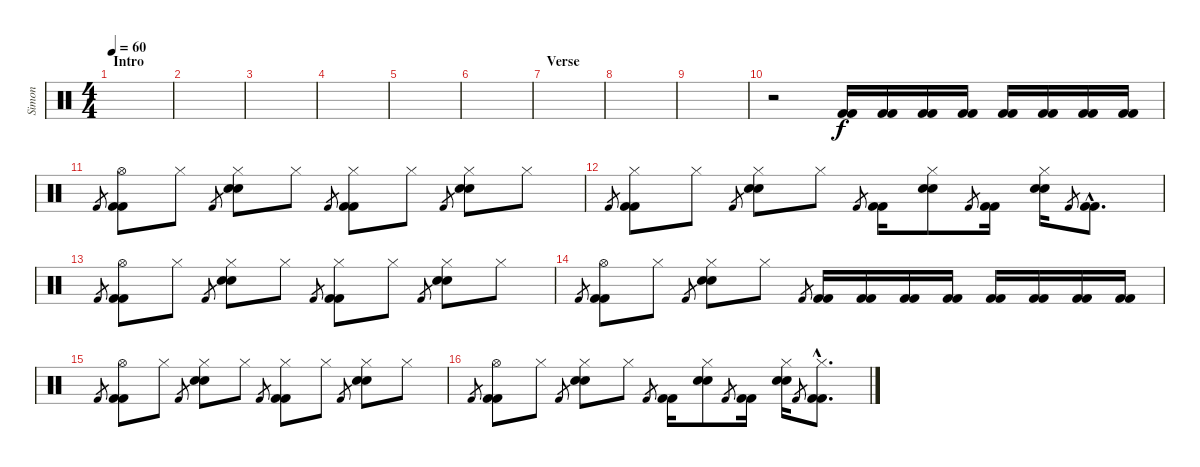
\track ("Simon" "Simon") {instrument percussion}
\staff {score}
\articulation defaults
\ts (4 4)
\section ("" "Intro")
\tempo 60
\clef neutral
\ks c
|
|
|
|
|
|
\section ("" "Verse")
|
|
|
r.2 ("Kick (hit) 2" "Kick (hit) 2").16 ("Kick (hit) 2" "Kick (hit) 2").16 ("Kick (hit) 2" "Kick (hit) 2").16 ("Kick (hit) 2" "Kick (hit) 2").16 ("Kick (hit) 2" "Kick (hit) 2").16 ("Kick (hit) 2" "Kick (hit) 2").16 ("Kick (hit) 2" "Kick (hit) 2").16 ("Kick (hit) 2" "Kick (hit) 2").16 |
"Kick (hit) 2".8{gr} ("Hi-Hat (open)" "Kick (hit) 2" "Kick (hit) 2").8 "Hi-Hat (closed)".8 "Kick (hit) 2".8{gr} ("Hi-Hat (closed)" "Electric Snare (hit)" "Electric Snare (hit)").8 "Hi-Hat (closed)".8 "Kick (hit) 2".8{gr} ("Hi-Hat (closed)" "Kick (hit) 2" "Kick (hit) 2").8 "Hi-Hat (closed)".8 "Kick (hit) 2".8{gr} ("Hi-Hat (closed)" "Electric Snare (hit)" "Electric Snare (hit)").8 "Hi-Hat (closed)".8 |
"Kick (hit) 2".8{gr} ("Hi-Hat (closed)" "Kick (hit) 2" "Kick (hit) 2").8 "Hi-Hat (closed)".8 "Kick (hit) 2".8{gr} ("Hi-Hat (closed)" "Electric Snare (hit)" "Electric Snare (hit)").8 "Hi-Hat (closed)".8 "Kick (hit) 2".8{gr} ("Kick (hit) 2" "Kick (hit) 2").16 ("Hi-Hat (closed)" "Electric Snare (hit)" "Electric Snare (hit)").8 "Kick (hit) 2".8{gr} ("Kick (hit) 2" "Kick (hit) 2").16 ("Hi-Hat (closed)" "Electric Snare (hit)" "Electric Snare (hit)").16 "Kick (hit) 2".8{gr} ("Kick (hit) 2"{hac} "Kick (hit) 2"{hac}).8{d} |
"Kick (hit) 2".8{gr} ("Hi-Hat (open)" "Kick (hit) 2" "Kick (hit) 2").8 "Hi-Hat (closed)".8 "Kick (hit) 2".8{gr} ("Hi-Hat (closed)" "Electric Snare (hit)" "Electric Snare (hit)").8 "Hi-Hat (closed)".8 "Kick (hit) 2".8{gr} ("Hi-Hat (closed)" "Kick (hit) 2" "Kick (hit) 2").8 "Hi-Hat (closed)".8 "Kick (hit) 2".8{gr} ("Hi-Hat (closed)" "Electric Snare (hit)" "Electric Snare (hit)").8 "Hi-Hat (closed)".8 |
"Kick (hit) 2".8{gr} ("Hi-Hat (open)" "Kick (hit) 2" "Kick (hit) 2").8 "Hi-Hat (closed)".8 "Kick (hit) 2".8{gr} ("Hi-Hat (closed)" "Electric Snare (hit)" "Electric Snare (hit)").8 "Hi-Hat (closed)".8 "Kick (hit) 2".8{gr} ("Kick (hit) 2" "Kick (hit) 2").16 ("Kick (hit) 2" "Kick (hit) 2").16 ("Kick (hit) 2" "Kick (hit) 2").16 ("Kick (hit) 2" "Kick (hit) 2").16 ("Kick (hit) 2" "Kick (hit) 2").16 ("Kick (hit) 2" "Kick (hit) 2").16 ("Kick (hit) 2" "Kick (hit) 2").16 ("Kick (hit) 2" "Kick (hit) 2").16 |
"Kick (hit) 2".8{gr} ("Hi-Hat (open)" "Kick (hit) 2" "Kick (hit) 2").8 "Hi-Hat (closed)".8 "Kick (hit) 2".8{gr} ("Hi-Hat (closed)" "Electric Snare (hit)" "Electric Snare (hit)").8 "Hi-Hat (closed)".8 "Kick (hit) 2".8{gr} ("Hi-Hat (closed)" "Kick (hit) 2" "Kick (hit) 2").8 "Hi-Hat (closed)".8 "Kick (hit) 2".8{gr} ("Hi-Hat (closed)" "Electric Snare (hit)" "Electric Snare (hit)").8 "Hi-Hat (closed)".8 |
"Kick (hit) 2".8{gr} ("Hi-Hat (open)" "Kick (hit) 2" "Kick (hit) 2").8 "Hi-Hat (closed)".8 "Kick (hit) 2".8{gr} ("Hi-Hat (closed)" "Electric Snare (hit)" "Electric Snare (hit)").8 "Hi-Hat (closed)".8 "Kick (hit) 2".8{gr} ("Kick (hit) 2" "Kick (hit) 2").16 ("Hi-Hat (closed)" "Electric Snare (hit)" "Electric Snare (hit)").8 "Kick (hit) 2".8{gr} ("Kick (hit) 2" "Kick (hit) 2").16 ("Hi-Hat (closed)" "Electric Snare (hit)" "Electric Snare (hit)").16 "Kick (hit) 2".8{gr} ("Hi-Hat (closed)"{hac} "Kick (hit) 2"{hac} "Kick (hit) 2"{hac}).8{d}
